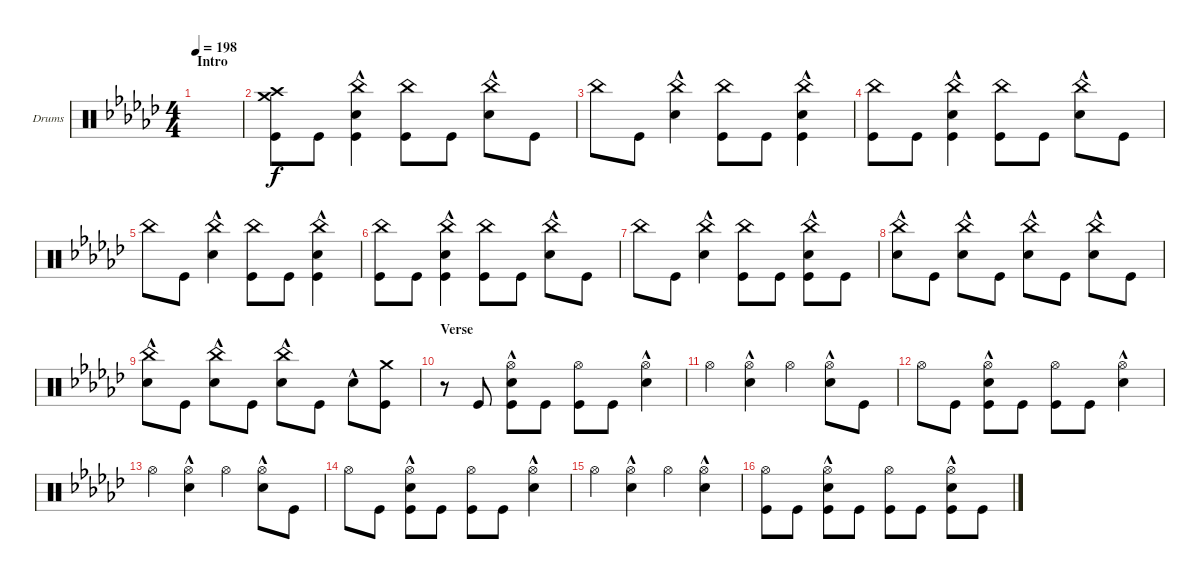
\bracketExtendMode groupsimilarinstruments
\firstSystemTrackNameOrientation horizontal
\otherSystemsTrackNameOrientation horizontal
\track ("Drumkit" "Drums") {instrument percussion}
\staff {score}
\articulation defaults
\ts (4 4)
\section ("" "Intro")
\tempo 198
\clef neutral
\ks ebminor
|
("Kick (hit)" "Crash medium (hit)" "Crash high (hit)").8 "Kick (hit)".8 ("Kick (hit)" "Snare (hit) 2"{hac} "China (hit)").4 ("Kick (hit)" "China (hit)").8 "Kick (hit)".8 ("Snare (hit) 2"{hac} "China (hit)").8 "Kick (hit)".8 |
"China (hit)".8 "Kick (hit)".8 ("Snare (hit) 2"{hac} "China (hit)").4 ("Kick (hit)" "China (hit)").8 "Kick (hit)".8 ("Kick (hit)" "China (hit)" "Snare (hit) 2"{hac}).4 |
("Kick (hit)" "China (hit)").8 "Kick (hit)".8 ("Kick (hit)" "Snare (hit) 2"{hac} "China (hit)").4 ("Kick (hit)" "China (hit)").8 "Kick (hit)".8 ("Snare (hit) 2"{hac} "China (hit)").8 "Kick (hit)".8 |
"China (hit)".8 "Kick (hit)".8 ("Snare (hit) 2"{hac} "China (hit)").4 ("Kick (hit)" "China (hit)").8 "Kick (hit)".8 ("Kick (hit)" "China (hit)" "Snare (hit) 2"{hac}).4 |
("Kick (hit)" "China (hit)").8 "Kick (hit)".8 ("Kick (hit)" "Snare (hit) 2"{hac} "China (hit)").4 ("Kick (hit)" "China (hit)").8 "Kick (hit)".8 ("Snare (hit) 2"{hac} "China (hit)").8 "Kick (hit)".8 |
"China (hit)".8 "Kick (hit)".8 ("Snare (hit) 2"{hac} "China (hit)").4 ("Kick (hit)" "China (hit)").8 "Kick (hit)".8 ("China (hit)" "Snare (hit) 2"{hac} "Kick (hit)").8 "Kick (hit)".8 |
("Snare (hit) 2"{hac} "China (hit)").8 "Kick (hit)".8 ("Snare (hit) 2"{hac} "China (hit)").8 "Kick (hit)".8 ("Snare (hit) 2"{hac} "China (hit)").8 "Kick (hit)".8 ("Snare (hit) 2"{hac} "China (hit)").8 "Kick (hit)".8 |
("Snare (hit) 2"{hac} "China (hit)").8 "Kick (hit)".8 ("Snare (hit) 2"{hac} "China (hit)").8 "Kick (hit)".8 ("Snare (hit) 2"{hac} "China (hit)").8 "Kick (hit)".8 "Snare (hit) 2"{hac}.8 ("Kick (hit)" "Crash medium (hit)").8 |
\section ("" "Verse")
r.8 "Kick (hit)".8 ("Hi-Hat (open)" "Snare (hit) 2"{hac} "Kick (hit)").8 "Kick (hit)".8 ("Hi-Hat (open)" "Kick (hit)").8 "Kick (hit)".8 ("Snare (hit) 2"{hac} "Hi-Hat (open)").4 |
"Hi-Hat (open)".4 ("Snare (hit) 2"{hac} "Hi-Hat (open)").4 "Hi-Hat (open)".4 ("Snare (hit) 2"{hac} "Hi-Hat (open)").8 "Kick (hit)".8 |
"Hi-Hat (open)".8 "Kick (hit)".8 ("Hi-Hat (open)" "Snare (hit) 2"{hac} "Kick (hit)").8 "Kick (hit)".8 ("Hi-Hat (open)" "Kick (hit)").8 "Kick (hit)".8 ("Snare (hit) 2"{hac} "Hi-Hat (open)").4 |
"Hi-Hat (open)".4 ("Snare (hit) 2"{hac} "Hi-Hat (open)").4 "Hi-Hat (open)".4 ("Snare (hit) 2"{hac} "Hi-Hat (open)").8 "Kick (hit)".8 |
"Hi-Hat (open)".8 "Kick (hit)".8 ("Hi-Hat (open)" "Snare (hit) 2"{hac} "Kick (hit)").8 "Kick (hit)".8 ("Hi-Hat (open)" "Kick (hit)").8 "Kick (hit)".8 ("Snare (hit) 2"{hac} "Hi-Hat (open)").4 |
"Hi-Hat (open)".4 ("Snare (hit) 2"{hac} "Hi-Hat (open)").4 "Hi-Hat (open)".4 ("Snare (hit) 2"{hac} "Hi-Hat (open)").4 |
("Kick (hit)" "Hi-Hat (open)").8 "Kick (hit)".8 ("Kick (hit)" "Hi-Hat (open)" "Snare (hit) 2"{hac}).8 "Kick (hit)".8 ("Kick (hit)" "Hi-Hat (open)").8 "Kick (hit)".8 ("Kick (hit)" "Hi-Hat (open)" "Snare (hit) 2"{hac}).8 "Kick (hit)".8
